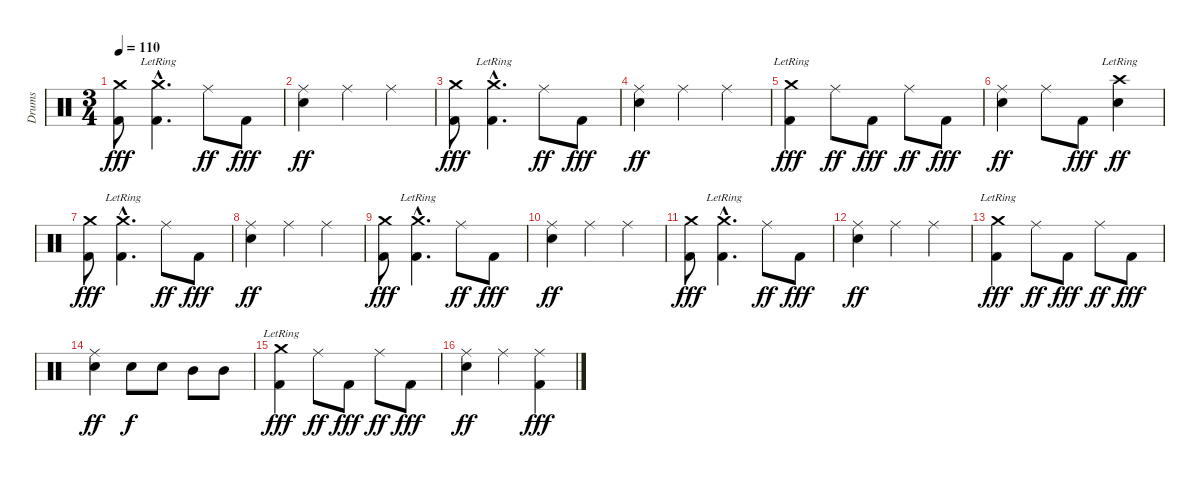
\track ("Drums" "Drums") {instrument percussion}
\staff {score}
\articulation defaults
\ts (3 4)
\tempo 110
\clef neutral
\ks c
("Crash medium (hit)" "Kick (hit) 2").8{dy fff} ("Crash medium (hit)"{hac lr} "Kick (hit) 2"{hac}).4{d} "Ride (middle)".8{dy ff} "Kick (hit) 2".8{dy fff} |
("Ride (middle)" "Snare (hit) 2").4{dy ff} "Ride (middle)".4 "Ride (middle)".4 |
("Crash medium (hit)" "Kick (hit) 2").8{dy fff} ("Crash medium (hit)"{hac lr} "Kick (hit) 2"{hac}).4{d} "Ride (middle)".8{dy ff} "Kick (hit) 2".8{dy fff} |
("Ride (middle)" "Snare (hit) 2").4{dy ff} "Ride (middle)".4 "Ride (middle)".4 |
("Crash medium (hit)"{lr} "Kick (hit) 2").4{dy fff} "Ride (middle)".8{dy ff} "Kick (hit) 2".8{dy fff} "Ride (middle)".8{dy ff} "Kick (hit) 2".8{dy fff} |
("Ride (middle)" "Snare (hit) 2").4{dy ff} "Ride (middle)".8 "Kick (hit) 2".8{dy fff} ("Crash high (hit)"{lr} "Snare (hit) 2").4{dy ff} |
("Crash medium (hit)" "Kick (hit) 2").8{dy fff} ("Crash medium (hit)"{hac lr} "Kick (hit) 2"{hac}).4{d} "Ride (middle)".8{dy ff} "Kick (hit) 2".8{dy fff} |
("Ride (middle)" "Snare (hit) 2").4{dy ff} "Ride (middle)".4 "Ride (middle)".4 |
("Crash medium (hit)" "Kick (hit) 2").8{dy fff} ("Crash medium (hit)"{hac lr} "Kick (hit) 2"{hac}).4{d} "Ride (middle)".8{dy ff} "Kick (hit) 2".8{dy fff} |
("Ride (middle)" "Snare (hit) 2").4{dy ff} "Ride (middle)".4 "Ride (middle)".4 |
("Crash medium (hit)" "Kick (hit) 2").8{dy fff} ("Crash medium (hit)"{hac lr} "Kick (hit) 2"{hac}).4{d} "Ride (middle)".8{dy ff} "Kick (hit) 2".8{dy fff} |
("Ride (middle)" "Snare (hit) 2").4{dy ff} "Ride (middle)".4 "Ride (middle)".4 |
("Crash medium (hit)"{lr} "Kick (hit) 2").4{dy fff} "Ride (middle)".8{dy ff} "Kick (hit) 2".8{dy fff} "Ride (middle)".8{dy ff} "Kick (hit) 2".8{dy fff} |
("Ride (middle)" "Snare (hit) 2").4{dy ff} "Snare (hit) 2".8{dy f} "Snare (hit) 2".8 "Mid Tom (hit)".8 "Mid Tom (hit)".8 |
("Crash medium (hit)"{lr} "Kick (hit) 2").4{dy fff} "Ride (middle)".8{dy ff} "Kick (hit) 2".8{dy fff} "Ride (middle)".8{dy ff} "Kick (hit) 2".8{dy fff} |
("Ride (middle)" "Snare (hit) 2").4{dy ff} "Ride (middle)".4 ("Ride (middle)" "Kick (hit) 2").4{dy fff}
